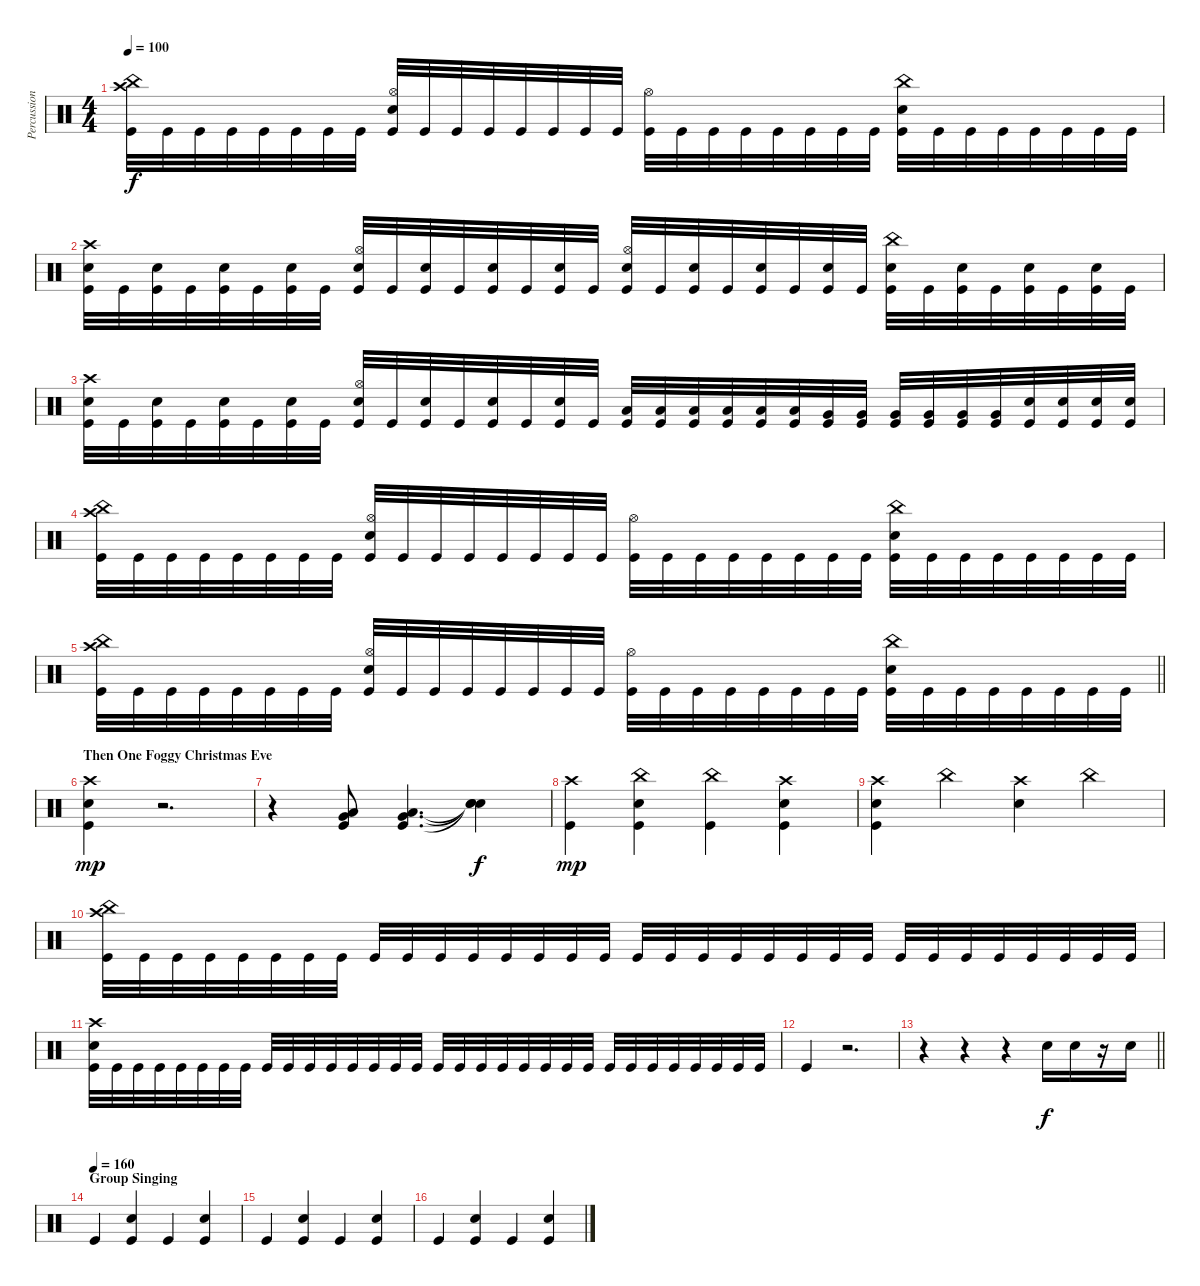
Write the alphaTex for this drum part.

\track ("Percussion" "Percussion") {instrument percussion}
\staff {score}
\articulation defaults
\ts (4 4)
\tempo 100
\clef neutral
\ks c
("China (hit)" "Crash high (hit)" "Kick (hit)").32{dy f} "Kick (hit)".32 "Kick (hit)".32 "Kick (hit)".32 "Kick (hit)".32 "Kick (hit)".32 "Kick (hit)".32 "Kick (hit)".32 ("Hi-Hat (open)" "Electric Snare (hit)" "Kick (hit)").32 "Kick (hit)".32 "Kick (hit)".32 "Kick (hit)".32 "Kick (hit)".32 "Kick (hit)".32 "Kick (hit)".32 "Kick (hit)".32 ("Hi-Hat (open)" "Kick (hit)").32 "Kick (hit)".32 "Kick (hit)".32 "Kick (hit)".32 "Kick (hit)".32 "Kick (hit)".32 "Kick (hit)".32 "Kick (hit)".32 ("China (hit)" "Electric Snare (hit)" "Kick (hit)").32 "Kick (hit)".32 "Kick (hit)".32 "Kick (hit)".32 "Kick (hit)".32 "Kick (hit)".32 "Kick (hit)".32 "Kick (hit)".32 |
("Crash high (hit)" "Electric Snare (hit)" "Kick (hit)").32 "Kick (hit)".32 ("Electric Snare (hit)" "Kick (hit)").32 "Kick (hit)".32 ("Electric Snare (hit)" "Kick (hit)").32 "Kick (hit)".32 ("Electric Snare (hit)" "Kick (hit)").32 "Kick (hit)".32 ("Hi-Hat (open)" "Electric Snare (hit)" "Kick (hit)").32 "Kick (hit)".32 ("Electric Snare (hit)" "Kick (hit)").32 "Kick (hit)".32 ("Electric Snare (hit)" "Kick (hit)").32 "Kick (hit)".32 ("Electric Snare (hit)" "Kick (hit)").32 "Kick (hit)".32 ("Hi-Hat (open)" "Electric Snare (hit)" "Kick (hit)").32 "Kick (hit)".32 ("Electric Snare (hit)" "Kick (hit)").32 "Kick (hit)".32 ("Electric Snare (hit)" "Kick (hit)").32 "Kick (hit)".32 ("Electric Snare (hit)" "Kick (hit)").32 "Kick (hit)".32 ("China (hit)" "Electric Snare (hit)" "Kick (hit)").32 "Kick (hit)".32 ("Electric Snare (hit)" "Kick (hit)").32 "Kick (hit)".32 ("Electric Snare (hit)" "Kick (hit)").32 "Kick (hit)".32 ("Electric Snare (hit)" "Kick (hit)").32 "Kick (hit)".32 |
("Crash high (hit)" "Electric Snare (hit)" "Kick (hit)").32 "Kick (hit)".32 ("Electric Snare (hit)" "Kick (hit)").32 "Kick (hit)".32 ("Electric Snare (hit)" "Kick (hit)").32 "Kick (hit)".32 ("Electric Snare (hit)" "Kick (hit)").32 "Kick (hit)".32 ("Hi-Hat (open)" "Electric Snare (hit)" "Kick (hit)").32 "Kick (hit)".32 ("Electric Snare (hit)" "Kick (hit)").32 "Kick (hit)".32 ("Electric Snare (hit)" "Kick (hit)").32 "Kick (hit)".32 ("Electric Snare (hit)" "Kick (hit)").32 "Kick (hit)".32 ("Low Tom (hit)" "Kick (hit)").32 ("Low Tom (hit)" "Kick (hit)").32 ("Low Tom (hit)" "Kick (hit)").32 ("Low Tom (hit)" "Kick (hit)").32 ("Low Tom (hit)" "Kick (hit)").32 ("Low Tom (hit)" "Kick (hit)").32 ("Very Low Tom (hit)" "Kick (hit)").32 ("Very Low Tom (hit)" "Kick (hit)").32 ("Very Low Tom (hit)" "Kick (hit)").32 ("Very Low Tom (hit)" "Kick (hit)").32 ("Very Low Tom (hit)" "Kick (hit)").32 ("Very Low Tom (hit)" "Kick (hit)").32 ("Electric Snare (hit)" "Kick (hit)").32 ("Electric Snare (hit)" "Kick (hit)").32 ("Electric Snare (hit)" "Kick (hit)").32 ("Electric Snare (hit)" "Kick (hit)").32 |
("China (hit)" "Crash high (hit)" "Kick (hit)").32 "Kick (hit)".32 "Kick (hit)".32 "Kick (hit)".32 "Kick (hit)".32 "Kick (hit)".32 "Kick (hit)".32 "Kick (hit)".32 ("Hi-Hat (open)" "Electric Snare (hit)" "Kick (hit)").32 "Kick (hit)".32 "Kick (hit)".32 "Kick (hit)".32 "Kick (hit)".32 "Kick (hit)".32 "Kick (hit)".32 "Kick (hit)".32 ("Hi-Hat (open)" "Kick (hit)").32 "Kick (hit)".32 "Kick (hit)".32 "Kick (hit)".32 "Kick (hit)".32 "Kick (hit)".32 "Kick (hit)".32 "Kick (hit)".32 ("China (hit)" "Electric Snare (hit)" "Kick (hit)").32 "Kick (hit)".32 "Kick (hit)".32 "Kick (hit)".32 "Kick (hit)".32 "Kick (hit)".32 "Kick (hit)".32 "Kick (hit)".32 |
\barLineRight lightlight
("China (hit)" "Crash high (hit)" "Kick (hit)").32 "Kick (hit)".32 "Kick (hit)".32 "Kick (hit)".32 "Kick (hit)".32 "Kick (hit)".32 "Kick (hit)".32 "Kick (hit)".32 ("Hi-Hat (open)" "Electric Snare (hit)" "Kick (hit)").32 "Kick (hit)".32 "Kick (hit)".32 "Kick (hit)".32 "Kick (hit)".32 "Kick (hit)".32 "Kick (hit)".32 "Kick (hit)".32 ("Hi-Hat (open)" "Kick (hit)").32 "Kick (hit)".32 "Kick (hit)".32 "Kick (hit)".32 "Kick (hit)".32 "Kick (hit)".32 "Kick (hit)".32 "Kick (hit)".32 ("China (hit)" "Electric Snare (hit)" "Kick (hit)").32 "Kick (hit)".32 "Kick (hit)".32 "Kick (hit)".32 "Kick (hit)".32 "Kick (hit)".32 "Kick (hit)".32 "Kick (hit)".32 |
\section ("" "Then One Foggy Christmas Eve")
("Crash high (hit)" "Electric Snare (hit)" "Kick (hit)").4{dy mp} r.2{d} |
r.4 ("Very Low Tom (hit)" "Low Tom (hit)" "Kick (hit)").8 ("Very Low Tom (hit)" "Low Tom (hit)" "Kick (hit)").4{d} ("Snare (hit)"{t} "Snare (hit)"{t} "Snare (hit)"{t}).4{dy f} |
("Crash high (hit)" "Kick (hit)").4{dy mp} ("China (hit)" "Electric Snare (hit)" "Kick (hit)").4 ("China (hit)" "Kick (hit)").4 ("Crash high (hit)" "Electric Snare (hit)" "Kick (hit)").4 |
("Crash high (hit)" "Electric Snare (hit)" "Kick (hit)").4 "China (hit)".4 ("Crash high (hit)" "Electric Snare (hit)").4 "China (hit)".4 |
("China (hit)" "Crash high (hit)" "Kick (hit)").32 "Kick (hit)".32 "Kick (hit)".32 "Kick (hit)".32 "Kick (hit)".32 "Kick (hit)".32 "Kick (hit)".32 "Kick (hit)".32 "Kick (hit)".32 "Kick (hit)".32 "Kick (hit)".32 "Kick (hit)".32 "Kick (hit)".32 "Kick (hit)".32 "Kick (hit)".32 "Kick (hit)".32 "Kick (hit)".32 "Kick (hit)".32 "Kick (hit)".32 "Kick (hit)".32 "Kick (hit)".32 "Kick (hit)".32 "Kick (hit)".32 "Kick (hit)".32 "Kick (hit)".32 "Kick (hit)".32 "Kick (hit)".32 "Kick (hit)".32 "Kick (hit)".32 "Kick (hit)".32 "Kick (hit)".32 "Kick (hit)".32 |
("Crash high (hit)" "Electric Snare (hit)" "Kick (hit)").32 "Kick (hit)".32 "Kick (hit)".32 "Kick (hit)".32 "Kick (hit)".32 "Kick (hit)".32 "Kick (hit)".32 "Kick (hit)".32 "Kick (hit)".32 "Kick (hit)".32 "Kick (hit)".32 "Kick (hit)".32 "Kick (hit)".32 "Kick (hit)".32 "Kick (hit)".32 "Kick (hit)".32 "Kick (hit)".32 "Kick (hit)".32 "Kick (hit)".32 "Kick (hit)".32 "Kick (hit)".32 "Kick (hit)".32 "Kick (hit)".32 "Kick (hit)".32 "Kick (hit)".32 "Kick (hit)".32 "Kick (hit)".32 "Kick (hit)".32 "Kick (hit)".32 "Kick (hit)".32 "Kick (hit)".32 "Kick (hit)".32 |
"Kick (hit)".4 r.2{d} |
\barLineRight lightlight
r.4 r.4 r.4 "Electric Snare (hit)".16{dy f} "Electric Snare (hit)".16 r.16 "Electric Snare (hit)".16 |
\section ("" "Group Singing")
\tempo (160)
"Kick (hit)".4 ("Electric Snare (hit)" "Kick (hit)").4 "Kick (hit)".4 ("Electric Snare (hit)" "Kick (hit)").4 |
"Kick (hit)".4 ("Electric Snare (hit)" "Kick (hit)").4 "Kick (hit)".4 ("Electric Snare (hit)" "Kick (hit)").4 |
"Kick (hit)".4 ("Electric Snare (hit)" "Kick (hit)").4 "Kick (hit)".4 ("Electric Snare (hit)" "Kick (hit)").4
